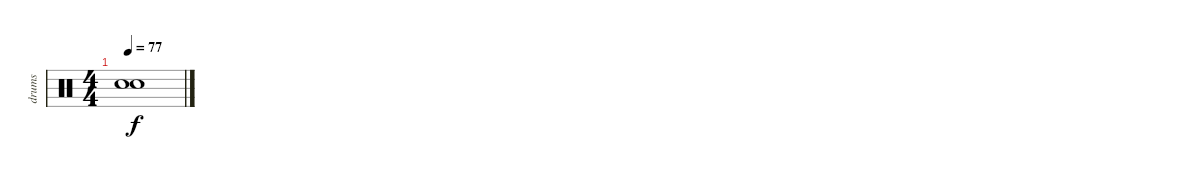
\track ("drums" "drums") {instrument percussion}
\staff {score}
\articulation defaults
\ts (4 4)
\tempo 77
\clef neutral
\ks c
("Snare (hit)"{t} "Snare (hit)"{t}).1{dy f}
